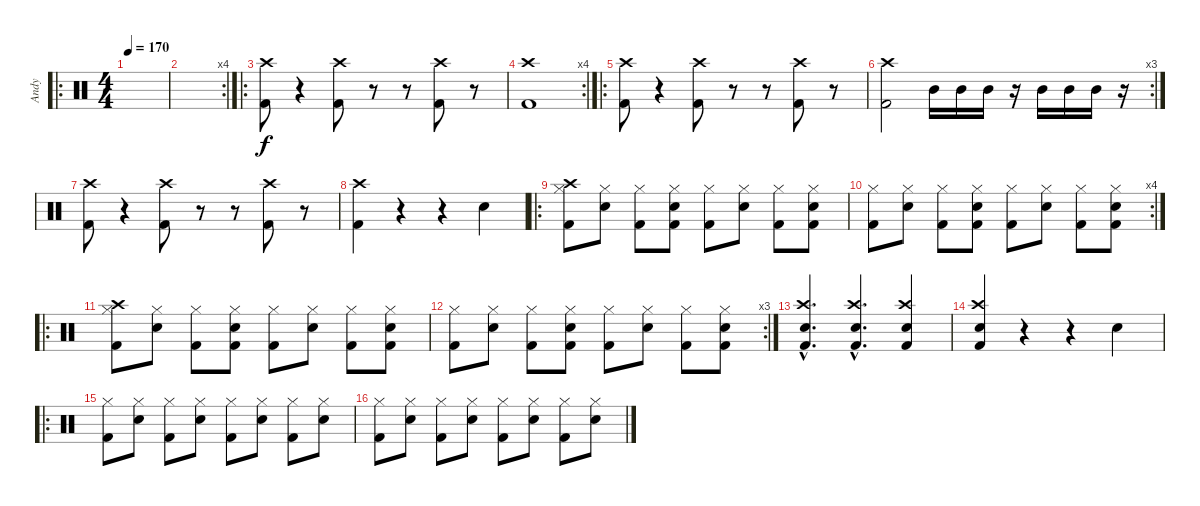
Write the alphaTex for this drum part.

\track ("Andy" "Andy") {instrument percussion}
\staff {score}
\articulation defaults
\ro
\ts (4 4)
\tempo 170
\clef neutral
\ks c
|
\rc 4
|
\ro
("Kick (hit) 2" "Crash high (hit)").8 r.4 ("Kick (hit) 2" "Crash high (hit)").8 r.8 r.8 ("Kick (hit) 2" "Crash high (hit)").8 r.8 |
\rc 4
("Kick (hit) 2" "Crash high (hit)").1 |
\ro
("Kick (hit) 2" "Crash high (hit)").8 r.4 ("Kick (hit) 2" "Crash high (hit)").8 r.8 r.8 ("Kick (hit) 2" "Crash high (hit)").8 r.8 |
\rc 3
("Kick (hit) 2" "Crash high (hit)").2 "Mid Tom (hit)".16 "Mid Tom (hit)".16 "Mid Tom (hit)".16 r.16 "Mid Tom (hit)".16 "Mid Tom (hit)".16 "Mid Tom (hit)".16 r.16 |
("Kick (hit) 2" "Crash high (hit)").8 r.4 ("Kick (hit) 2" "Crash high (hit)").8 r.8 r.8 ("Kick (hit) 2" "Crash high (hit)").8 r.8 |
("Kick (hit) 2" "Crash high (hit)").4 r.4 r.4 "Electric Snare (hit)".4 |
\ro
("Hi-Hat (closed)" "Kick (hit) 2" "Crash high (hit)").8 ("Hi-Hat (closed)" "Electric Snare (hit)").8 ("Hi-Hat (closed)" "Kick (hit) 2").8 ("Hi-Hat (closed)" "Electric Snare (hit)" "Kick (hit) 2").8 ("Hi-Hat (closed)" "Kick (hit) 2").8 ("Hi-Hat (closed)" "Electric Snare (hit)").8 ("Hi-Hat (closed)" "Kick (hit) 2").8 ("Hi-Hat (closed)" "Electric Snare (hit)" "Kick (hit) 2").8 |
\rc 4
("Hi-Hat (closed)" "Kick (hit) 2").8 ("Hi-Hat (closed)" "Electric Snare (hit)").8 ("Hi-Hat (closed)" "Kick (hit) 2").8 ("Hi-Hat (closed)" "Electric Snare (hit)" "Kick (hit) 2").8 ("Hi-Hat (closed)" "Kick (hit) 2").8 ("Hi-Hat (closed)" "Electric Snare (hit)").8 ("Hi-Hat (closed)" "Kick (hit) 2").8 ("Hi-Hat (closed)" "Electric Snare (hit)" "Kick (hit) 2").8 |
\ro
("Hi-Hat (closed)" "Kick (hit) 2" "Crash high (hit)").8 ("Hi-Hat (closed)" "Electric Snare (hit)").8 ("Hi-Hat (closed)" "Kick (hit) 2").8 ("Hi-Hat (closed)" "Electric Snare (hit)" "Kick (hit) 2").8 ("Hi-Hat (closed)" "Kick (hit) 2").8 ("Hi-Hat (closed)" "Electric Snare (hit)").8 ("Hi-Hat (closed)" "Kick (hit) 2").8 ("Hi-Hat (closed)" "Electric Snare (hit)" "Kick (hit) 2").8 |
\rc 3
("Hi-Hat (closed)" "Kick (hit) 2").8 ("Hi-Hat (closed)" "Electric Snare (hit)").8 ("Hi-Hat (closed)" "Kick (hit) 2").8 ("Hi-Hat (closed)" "Electric Snare (hit)" "Kick (hit) 2").8 ("Hi-Hat (closed)" "Kick (hit) 2").8 ("Hi-Hat (closed)" "Electric Snare (hit)").8 ("Hi-Hat (closed)" "Kick (hit) 2").8 ("Hi-Hat (closed)" "Electric Snare (hit)" "Kick (hit) 2").8 |
("Electric Snare (hit)"{hac} "Crash high (hit)"{hac} "Kick (hit) 2"{hac}).4{d} ("Electric Snare (hit)"{hac} "Crash high (hit)"{hac} "Kick (hit) 2"{hac}).4{d} ("Electric Snare (hit)" "Crash high (hit)" "Kick (hit) 2").4 |
("Electric Snare (hit)" "Crash high (hit)" "Kick (hit) 2").4 r.4 r.4 "Electric Snare (hit)".4 |
\ro
("Hi-Hat (closed)" "Kick (hit) 2").8 ("Hi-Hat (closed)" "Electric Snare (hit)").8 ("Hi-Hat (closed)" "Kick (hit) 2").8 ("Hi-Hat (closed)" "Electric Snare (hit)").8 ("Hi-Hat (closed)" "Kick (hit) 2").8 ("Hi-Hat (closed)" "Electric Snare (hit)").8 ("Hi-Hat (closed)" "Kick (hit) 2").8 ("Hi-Hat (closed)" "Electric Snare (hit)").8 |
("Hi-Hat (closed)" "Kick (hit) 2").8 ("Hi-Hat (closed)" "Electric Snare (hit)").8 ("Hi-Hat (closed)" "Kick (hit) 2").8 ("Hi-Hat (closed)" "Electric Snare (hit)").8 ("Hi-Hat (closed)" "Kick (hit) 2").8 ("Hi-Hat (closed)" "Electric Snare (hit)").8 ("Hi-Hat (closed)" "Kick (hit) 2").8 ("Hi-Hat (closed)" "Electric Snare (hit)").8
